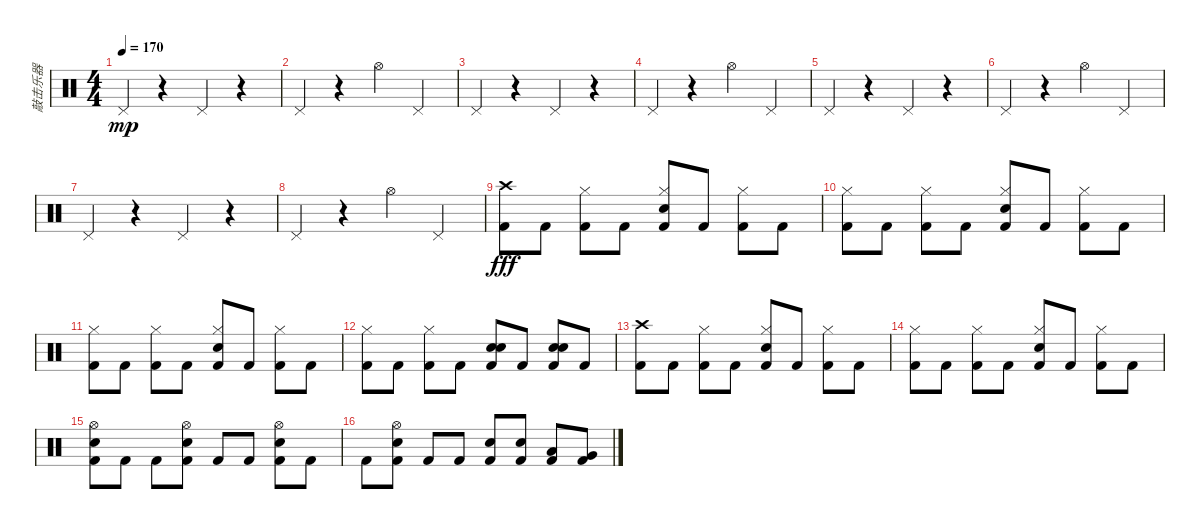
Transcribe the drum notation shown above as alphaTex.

\track ("敲击乐器" "敲击乐器") {instrument percussion}
\staff {score}
\articulation defaults
\ts (4 4)
\tempo 170
\clef neutral
\ks c "Pedal Hi-Hat (hit)".4{dy mp}
r.4 "Pedal Hi-Hat (hit)".4 r.4 |
"Pedal Hi-Hat (hit)".4 r.4 "Hi-Hat (open)".4 "Pedal Hi-Hat (hit)".4 |
"Pedal Hi-Hat (hit)".4 r.4 "Pedal Hi-Hat (hit)".4 r.4 |
"Pedal Hi-Hat (hit)".4 r.4 "Hi-Hat (open)".4 "Pedal Hi-Hat (hit)".4 |
"Pedal Hi-Hat (hit)".4 r.4 "Pedal Hi-Hat (hit)".4 r.4 |
"Pedal Hi-Hat (hit)".4 r.4 "Hi-Hat (open)".4 "Pedal Hi-Hat (hit)".4 |
"Pedal Hi-Hat (hit)".4 r.4 "Pedal Hi-Hat (hit)".4 r.4 |
"Pedal Hi-Hat (hit)".4 r.4 "Hi-Hat (open)".4 "Pedal Hi-Hat (hit)".4 |
("Crash high (hit)" "Kick (hit) 2").8{dy fff} "Kick (hit) 2".8 ("Hi-Hat (closed)" "Kick (hit) 2").8 "Kick (hit) 2".8 ("Hi-Hat (closed)" "Electric Snare (hit)" "Kick (hit) 2").8 "Kick (hit) 2".8 ("Hi-Hat (closed)" "Kick (hit) 2").8 "Kick (hit) 2".8 |
("Hi-Hat (closed)" "Kick (hit) 2").8 "Kick (hit) 2".8 ("Hi-Hat (closed)" "Kick (hit) 2").8 "Kick (hit) 2".8 ("Hi-Hat (closed)" "Electric Snare (hit)" "Kick (hit) 2").8 "Kick (hit) 2".8 ("Hi-Hat (closed)" "Kick (hit) 2").8 "Kick (hit) 2".8 |
("Hi-Hat (closed)" "Kick (hit) 2").8 "Kick (hit) 2".8 ("Hi-Hat (closed)" "Kick (hit) 2").8 "Kick (hit) 2".8 ("Hi-Hat (closed)" "Electric Snare (hit)" "Kick (hit) 2").8 "Kick (hit) 2".8 ("Hi-Hat (closed)" "Kick (hit) 2").8 "Kick (hit) 2".8 |
("Hi-Hat (closed)" "Kick (hit) 2").8 "Kick (hit) 2".8 ("Hi-Hat (closed)" "Kick (hit) 2").8 "Kick (hit) 2".8 ("Electric Snare (hit)" "Electric Snare (hit)" "Kick (hit) 2").8 "Kick (hit) 2".8 ("Electric Snare (hit)" "Electric Snare (hit)" "Kick (hit) 2").8 "Kick (hit) 2".8 |
("Crash high (hit)" "Kick (hit) 2").8 "Kick (hit) 2".8 ("Hi-Hat (closed)" "Kick (hit) 2").8 "Kick (hit) 2".8 ("Hi-Hat (closed)" "Electric Snare (hit)" "Kick (hit) 2").8 "Kick (hit) 2".8 ("Hi-Hat (closed)" "Kick (hit) 2").8 "Kick (hit) 2".8 |
("Hi-Hat (closed)" "Kick (hit) 2").8 "Kick (hit) 2".8 ("Hi-Hat (closed)" "Kick (hit) 2").8 "Kick (hit) 2".8 ("Hi-Hat (closed)" "Electric Snare (hit)" "Kick (hit) 2").8 "Kick (hit) 2".8 ("Hi-Hat (closed)" "Kick (hit) 2").8 "Kick (hit) 2".8 |
("Hi-Hat (open)" "Electric Snare (hit)" "Kick (hit) 2").8 "Kick (hit) 2".8 "Kick (hit) 2".8 ("Hi-Hat (open)" "Electric Snare (hit)" "Kick (hit) 2").8 "Kick (hit) 2".8 "Kick (hit) 2".8 ("Hi-Hat (open)" "Electric Snare (hit)" "Kick (hit) 2").8 "Kick (hit) 2".8 |
"Kick (hit) 2".8 ("Hi-Hat (open)" "Electric Snare (hit)" "Kick (hit) 2").8 "Kick (hit) 2".8 "Kick (hit) 2".8 ("Electric Snare (hit)" "Kick (hit) 2").8 ("Electric Snare (hit)" "Kick (hit) 2").8 ("Low Tom (hit)" "Kick (hit) 2").8 ("Very Low Tom (hit)" "Kick (hit) 2").8
